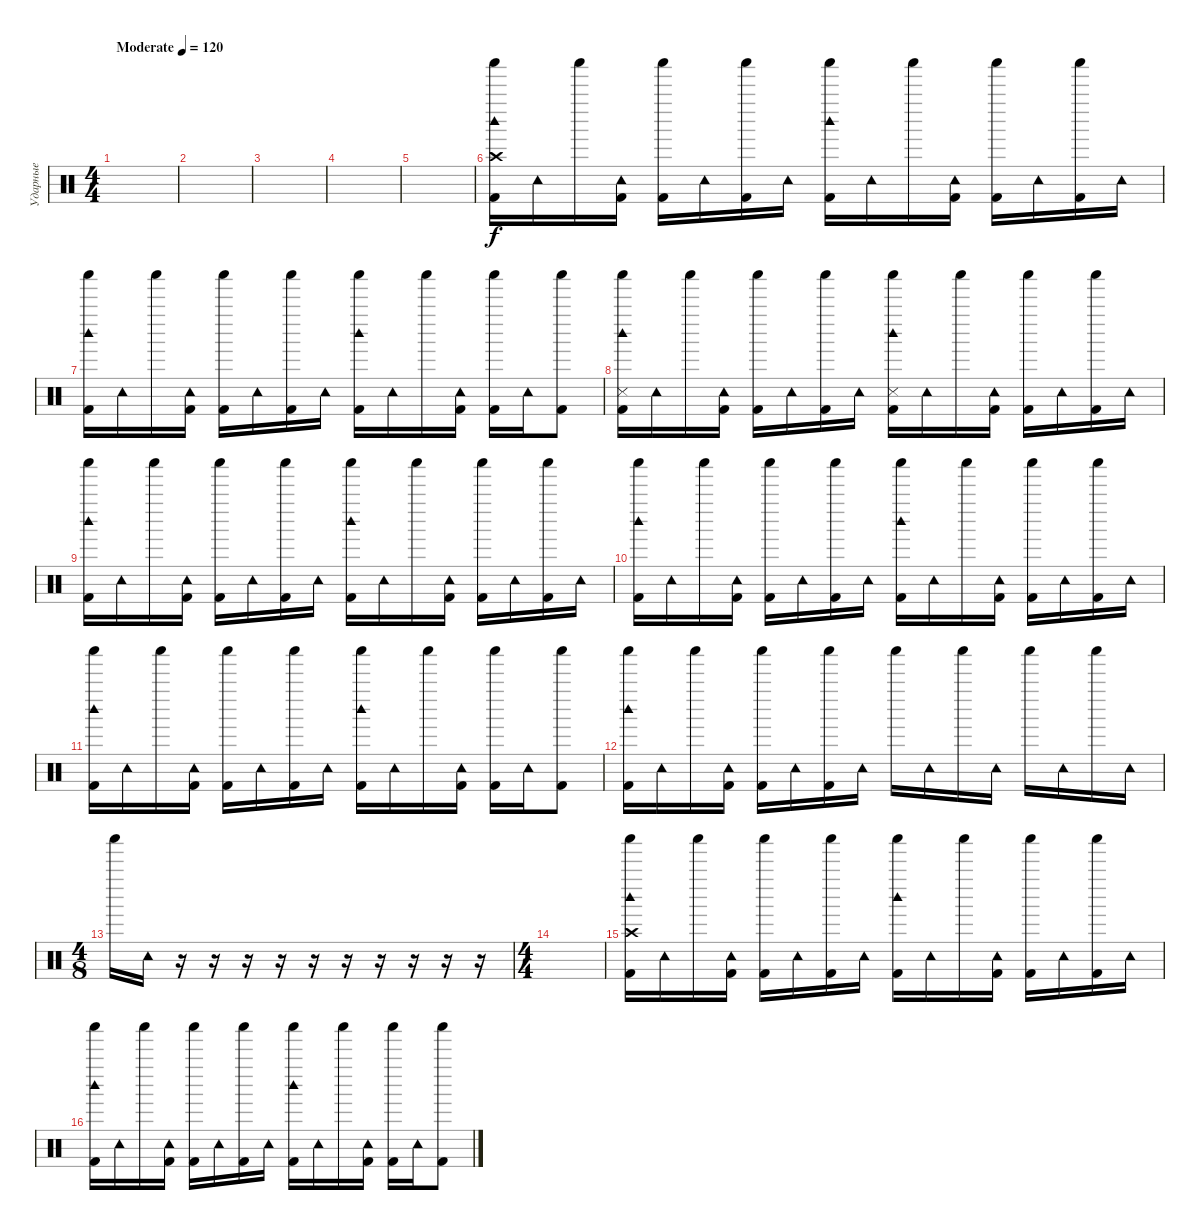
\track ("Ударные" "Ударные") {instrument percussion}
\staff {score}
\articulation defaults
\ts (4 4)
\tempo (120 "Moderate")
\clef neutral
\ks c
|
|
|
|
|
("Shaker (hit)" "Kick (hit) 2" "Woodblock high (hit)" "Crash high (hit)").16 "Tambourine (hit)".16 "Shaker (hit)".16 ("Tambourine (hit)" "Kick (hit) 2").16 ("Shaker (hit)" "Kick (hit) 2").16 "Tambourine (hit)".16 ("Shaker (hit)" "Kick (hit) 2").16 "Tambourine (hit)".16 ("Shaker (hit)" "Kick (hit) 2" "Woodblock high (hit)").16 "Tambourine (hit)".16 "Shaker (hit)".16 ("Tambourine (hit)" "Kick (hit) 2").16 ("Shaker (hit)" "Kick (hit) 2").16 "Tambourine (hit)".16 ("Shaker (hit)" "Kick (hit) 2").16 "Tambourine (hit)".16 |
("Shaker (hit)" "Kick (hit) 2" "Woodblock high (hit)").16 "Tambourine (hit)".16 "Shaker (hit)".16 ("Tambourine (hit)" "Kick (hit) 2").16 ("Shaker (hit)" "Kick (hit) 2").16 "Tambourine (hit)".16 ("Shaker (hit)" "Kick (hit) 2").16 "Tambourine (hit)".16 ("Shaker (hit)" "Kick (hit) 2" "Woodblock high (hit)").16 "Tambourine (hit)".16 "Shaker (hit)".16 ("Tambourine (hit)" "Kick (hit) 2").16 ("Shaker (hit)" "Kick (hit) 2").16 "Tambourine (hit)".16 ("Shaker (hit)" "Kick (hit) 2").8 |
("Shaker (hit)" "Kick (hit) 2" "Woodblock high (hit)" "Snare (side stick) 3").16 "Tambourine (hit)".16 "Shaker (hit)".16 ("Tambourine (hit)" "Kick (hit) 2").16 ("Shaker (hit)" "Kick (hit) 2").16 "Tambourine (hit)".16 ("Shaker (hit)" "Kick (hit) 2").16 "Tambourine (hit)".16 ("Shaker (hit)" "Kick (hit) 2" "Woodblock high (hit)" "Snare (side stick) 3").16 "Tambourine (hit)".16 "Shaker (hit)".16 ("Tambourine (hit)" "Kick (hit) 2").16 ("Shaker (hit)" "Kick (hit) 2").16 "Tambourine (hit)".16 ("Shaker (hit)" "Kick (hit) 2").16 "Tambourine (hit)".16 |
("Shaker (hit)" "Kick (hit) 2" "Woodblock high (hit)").16 "Tambourine (hit)".16 "Shaker (hit)".16 ("Tambourine (hit)" "Kick (hit) 2").16 ("Shaker (hit)" "Kick (hit) 2").16 "Tambourine (hit)".16 ("Shaker (hit)" "Kick (hit) 2").16 "Tambourine (hit)".16 ("Shaker (hit)" "Kick (hit) 2" "Woodblock high (hit)").16 "Tambourine (hit)".16 "Shaker (hit)".16 ("Tambourine (hit)" "Kick (hit) 2").16 ("Shaker (hit)" "Kick (hit) 2").16 "Tambourine (hit)".16 ("Shaker (hit)" "Kick (hit) 2").16 "Tambourine (hit)".16 |
("Shaker (hit)" "Kick (hit) 2" "Woodblock high (hit)").16 "Tambourine (hit)".16 "Shaker (hit)".16 ("Tambourine (hit)" "Kick (hit) 2").16 ("Shaker (hit)" "Kick (hit) 2").16 "Tambourine (hit)".16 ("Shaker (hit)" "Kick (hit) 2").16 "Tambourine (hit)".16 ("Shaker (hit)" "Kick (hit) 2" "Woodblock high (hit)").16 "Tambourine (hit)".16 "Shaker (hit)".16 ("Tambourine (hit)" "Kick (hit) 2").16 ("Shaker (hit)" "Kick (hit) 2").16 "Tambourine (hit)".16 ("Shaker (hit)" "Kick (hit) 2").16 "Tambourine (hit)".16 |
("Shaker (hit)" "Kick (hit) 2" "Woodblock high (hit)").16 "Tambourine (hit)".16 "Shaker (hit)".16 ("Tambourine (hit)" "Kick (hit) 2").16 ("Shaker (hit)" "Kick (hit) 2").16 "Tambourine (hit)".16 ("Shaker (hit)" "Kick (hit) 2").16 "Tambourine (hit)".16 ("Shaker (hit)" "Kick (hit) 2" "Woodblock high (hit)").16 "Tambourine (hit)".16 "Shaker (hit)".16 ("Tambourine (hit)" "Kick (hit) 2").16 ("Shaker (hit)" "Kick (hit) 2").16 "Tambourine (hit)".16 ("Shaker (hit)" "Kick (hit) 2").8 |
("Shaker (hit)" "Kick (hit) 2" "Woodblock high (hit)").16 "Tambourine (hit)".16 "Shaker (hit)".16 ("Tambourine (hit)" "Kick (hit) 2").16 ("Shaker (hit)" "Kick (hit) 2").16 "Tambourine (hit)".16 ("Shaker (hit)" "Kick (hit) 2").16 "Tambourine (hit)".16 "Shaker (hit)".16 "Tambourine (hit)".16 "Shaker (hit)".16 "Tambourine (hit)".16 "Shaker (hit)".16 "Tambourine (hit)".16 "Shaker (hit)".16 "Tambourine (hit)".16 |
\ts (4 8)
"Shaker (hit)".16 "Tambourine (hit)".16 r.16 r.16 r.16 r.16 r.16 r.16 r.16 r.16 r.16 r.16 |
\ts (4 4)
|
("Shaker (hit)" "Kick (hit) 2" "Woodblock high (hit)" "Crash high (hit)").16 "Tambourine (hit)".16 "Shaker (hit)".16 ("Tambourine (hit)" "Kick (hit) 2").16 ("Shaker (hit)" "Kick (hit) 2").16 "Tambourine (hit)".16 ("Shaker (hit)" "Kick (hit) 2").16 "Tambourine (hit)".16 ("Shaker (hit)" "Kick (hit) 2" "Woodblock high (hit)").16 "Tambourine (hit)".16 "Shaker (hit)".16 ("Tambourine (hit)" "Kick (hit) 2").16 ("Shaker (hit)" "Kick (hit) 2").16 "Tambourine (hit)".16 ("Shaker (hit)" "Kick (hit) 2").16 "Tambourine (hit)".16 |
("Shaker (hit)" "Kick (hit) 2" "Woodblock high (hit)").16 "Tambourine (hit)".16 "Shaker (hit)".16 ("Tambourine (hit)" "Kick (hit) 2").16 ("Shaker (hit)" "Kick (hit) 2").16 "Tambourine (hit)".16 ("Shaker (hit)" "Kick (hit) 2").16 "Tambourine (hit)".16 ("Shaker (hit)" "Kick (hit) 2" "Woodblock high (hit)").16 "Tambourine (hit)".16 "Shaker (hit)".16 ("Tambourine (hit)" "Kick (hit) 2").16 ("Shaker (hit)" "Kick (hit) 2").16 "Tambourine (hit)".16 ("Shaker (hit)" "Kick (hit) 2").8
